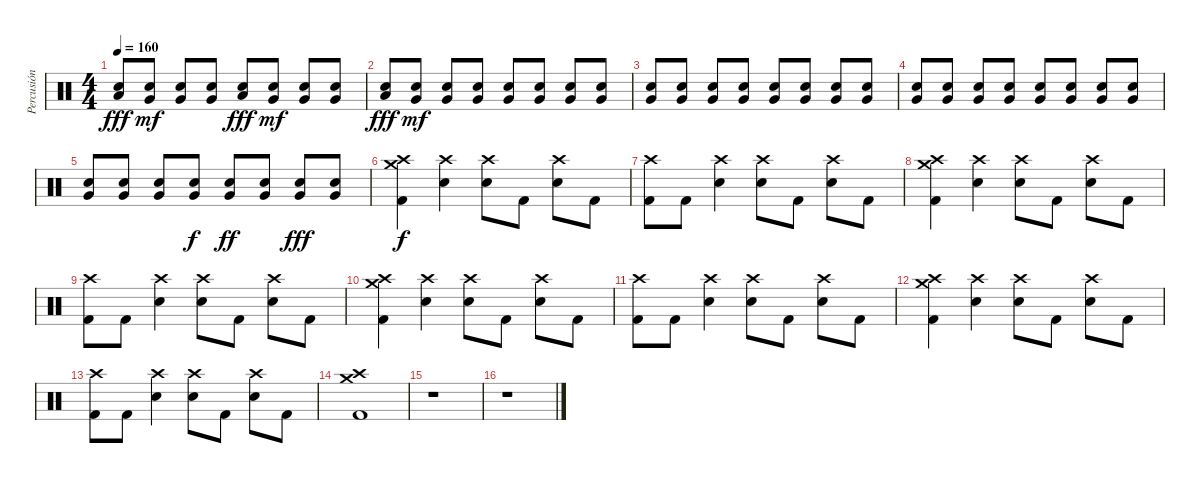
\track ("Percusión" "Percusión") {instrument percussion}
\staff {score}
\articulation defaults
\ts (4 4)
\tempo 160
\clef neutral
\ks c
("Snare (hit) 2" "Low Floor Tom (hit)").8{dy fff} ("Snare (hit) 2" "Very Low Tom (hit)").8{dy mf} ("Snare (hit) 2" "Very Low Tom (hit)").8 ("Snare (hit) 2" "Very Low Tom (hit)").8 ("Snare (hit) 2" "Low Floor Tom (hit)").8{dy fff} ("Snare (hit) 2" "Very Low Tom (hit)").8{dy mf} ("Snare (hit) 2" "Very Low Tom (hit)").8 ("Snare (hit) 2" "Very Low Tom (hit)").8 |
("Snare (hit) 2" "Low Floor Tom (hit)").8{dy fff} ("Snare (hit) 2" "Very Low Tom (hit)").8{dy mf} ("Snare (hit) 2" "Very Low Tom (hit)").8 ("Snare (hit) 2" "Very Low Tom (hit)").8 ("Snare (hit) 2" "Very Low Tom (hit)").8 ("Snare (hit) 2" "Very Low Tom (hit)").8 ("Snare (hit) 2" "Very Low Tom (hit)").8 ("Snare (hit) 2" "Very Low Tom (hit)").8 |
("Snare (hit) 2" "Very Low Tom (hit)").8 ("Snare (hit) 2" "Very Low Tom (hit)").8 ("Snare (hit) 2" "Very Low Tom (hit)").8 ("Snare (hit) 2" "Very Low Tom (hit)").8 ("Snare (hit) 2" "Very Low Tom (hit)").8 ("Snare (hit) 2" "Very Low Tom (hit)").8 ("Snare (hit) 2" "Very Low Tom (hit)").8 ("Snare (hit) 2" "Very Low Tom (hit)").8 |
("Snare (hit) 2" "Very Low Tom (hit)").8 ("Snare (hit) 2" "Very Low Tom (hit)").8 ("Snare (hit) 2" "Very Low Tom (hit)").8 ("Snare (hit) 2" "Very Low Tom (hit)").8 ("Snare (hit) 2" "Very Low Tom (hit)").8 ("Snare (hit) 2" "Very Low Tom (hit)").8 ("Snare (hit) 2" "Very Low Tom (hit)").8 ("Snare (hit) 2" "Very Low Tom (hit)").8 |
("Snare (hit) 2" "Very Low Tom (hit)").8 ("Snare (hit) 2" "Very Low Tom (hit)").8 ("Snare (hit) 2" "Very Low Tom (hit)").8 ("Snare (hit) 2" "Very Low Tom (hit)").8{dy f} ("Snare (hit) 2" "Very Low Tom (hit)").8{dy ff} ("Snare (hit) 2" "Very Low Tom (hit)").8 ("Snare (hit) 2" "Very Low Tom (hit)").8{dy fff} ("Snare (hit) 2" "Very Low Tom (hit)").8 |
("Crash medium (hit)" "Crash high (hit)" "Kick (hit) 2").4{dy f} ("Crash high (hit)" "Snare (hit) 2").4 ("Crash high (hit)" "Snare (hit) 2").8 "Kick (hit) 2".8 ("Crash high (hit)" "Snare (hit) 2").8 "Kick (hit) 2".8 |
("Crash high (hit)" "Kick (hit) 2").8 "Kick (hit) 2".8 ("Crash high (hit)" "Snare (hit) 2").4 ("Crash high (hit)" "Snare (hit) 2").8 "Kick (hit) 2".8 ("Crash high (hit)" "Snare (hit) 2").8 "Kick (hit) 2".8 |
("Crash medium (hit)" "Crash high (hit)" "Kick (hit) 2").4 ("Crash high (hit)" "Snare (hit) 2").4 ("Crash high (hit)" "Snare (hit) 2").8 "Kick (hit) 2".8 ("Crash high (hit)" "Snare (hit) 2").8 "Kick (hit) 2".8 |
("Crash high (hit)" "Kick (hit) 2").8 "Kick (hit) 2".8 ("Crash high (hit)" "Snare (hit) 2").4 ("Crash high (hit)" "Snare (hit) 2").8 "Kick (hit) 2".8 ("Crash high (hit)" "Snare (hit) 2").8 "Kick (hit) 2".8 |
("Crash medium (hit)" "Crash high (hit)" "Kick (hit) 2").4 ("Crash high (hit)" "Snare (hit) 2").4 ("Crash high (hit)" "Snare (hit) 2").8 "Kick (hit) 2".8 ("Crash high (hit)" "Snare (hit) 2").8 "Kick (hit) 2".8 |
("Crash high (hit)" "Kick (hit) 2").8 "Kick (hit) 2".8 ("Crash high (hit)" "Snare (hit) 2").4 ("Crash high (hit)" "Snare (hit) 2").8 "Kick (hit) 2".8 ("Crash high (hit)" "Snare (hit) 2").8 "Kick (hit) 2".8 |
("Crash medium (hit)" "Crash high (hit)" "Kick (hit) 2").4 ("Crash high (hit)" "Snare (hit) 2").4 ("Crash high (hit)" "Snare (hit) 2").8 "Kick (hit) 2".8 ("Crash high (hit)" "Snare (hit) 2").8 "Kick (hit) 2".8 |
("Crash high (hit)" "Kick (hit) 2").8 "Kick (hit) 2".8 ("Crash high (hit)" "Snare (hit) 2").4 ("Crash high (hit)" "Snare (hit) 2").8 "Kick (hit) 2".8 ("Crash high (hit)" "Snare (hit) 2").8 "Kick (hit) 2".8 |
("Kick (hit) 2" "Crash high (hit)" "Crash medium (hit)").1 |
r.1 |
r.1
